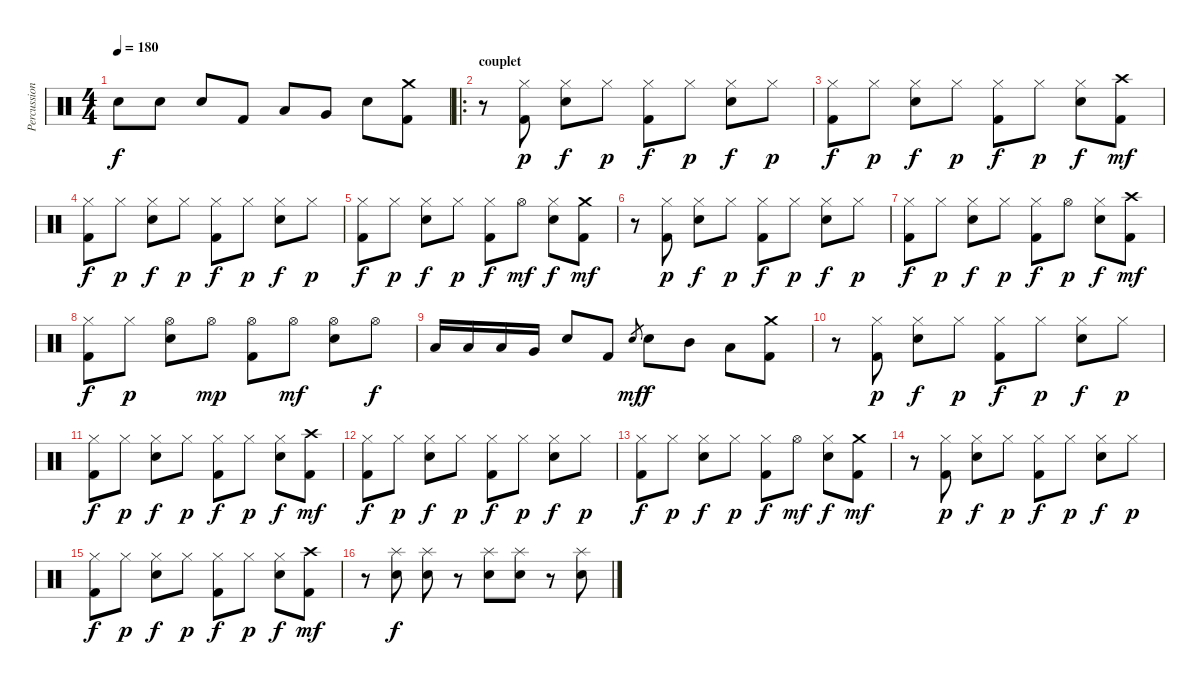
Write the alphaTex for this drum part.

\track ("Percussions" "Percussion") {instrument percussion}
\staff {score}
\articulation defaults
\ts (4 4)
\tempo 180
\clef neutral
\ks c "Electric Snare (hit)".8{dy f} "Electric Snare (hit)".8 "Electric Snare (hit)".8 "Kick (hit) 2".8 "Low Tom (hit)".8 "Very Low Tom (hit)".8 "Electric Snare (hit)".8
("Crash medium (hit)" "Kick (hit) 2").8 |
\ro
\section ("" "couplet")
r.8 ("Hi-Hat (closed)" "Kick (hit) 2").8{dy p} ("Hi-Hat (closed)" "Electric Snare (hit)").8{dy f} "Hi-Hat (closed)".8{dy p} ("Hi-Hat (closed)" "Kick (hit) 2").8{dy f} "Hi-Hat (closed)".8{dy p} ("Hi-Hat (closed)" "Electric Snare (hit)").8{dy f} "Hi-Hat (closed)".8{dy p} |
("Hi-Hat (closed)" "Kick (hit) 2").8{dy f} "Hi-Hat (closed)".8{dy p} ("Hi-Hat (closed)" "Electric Snare (hit)").8{dy f} "Hi-Hat (closed)".8{dy p} ("Hi-Hat (closed)" "Kick (hit) 2").8{dy f} "Hi-Hat (closed)".8{dy p} ("Hi-Hat (closed)" "Electric Snare (hit)").8{dy f} ("Crash high (hit)" "Kick (hit) 2").8{dy mf} |
("Hi-Hat (closed)" "Kick (hit) 2").8{dy f} "Hi-Hat (closed)".8{dy p} ("Hi-Hat (closed)" "Electric Snare (hit)").8{dy f} "Hi-Hat (closed)".8{dy p} ("Hi-Hat (closed)" "Kick (hit) 2").8{dy f} "Hi-Hat (closed)".8{dy p} ("Hi-Hat (closed)" "Electric Snare (hit)").8{dy f} "Hi-Hat (closed)".8{dy p} |
("Hi-Hat (closed)" "Kick (hit) 2").8{dy f} "Hi-Hat (closed)".8{dy p} ("Hi-Hat (closed)" "Electric Snare (hit)").8{dy f} "Hi-Hat (closed)".8{dy p} ("Hi-Hat (closed)" "Kick (hit) 2").8{dy f} "Hi-Hat (open)".8{dy mf} ("Hi-Hat (closed)" "Electric Snare (hit)").8{dy f} ("Crash medium (hit)" "Kick (hit) 2").8{dy mf} |
r.8 ("Hi-Hat (closed)" "Kick (hit) 2").8{dy p} ("Hi-Hat (closed)" "Electric Snare (hit)").8{dy f} "Hi-Hat (closed)".8{dy p} ("Hi-Hat (closed)" "Kick (hit) 2").8{dy f} "Hi-Hat (closed)".8{dy p} ("Hi-Hat (closed)" "Electric Snare (hit)").8{dy f} "Hi-Hat (closed)".8{dy p} |
("Hi-Hat (closed)" "Kick (hit) 2").8{dy f} "Hi-Hat (closed)".8{dy p} ("Hi-Hat (closed)" "Electric Snare (hit)").8{dy f} "Hi-Hat (closed)".8{dy p} ("Hi-Hat (closed)" "Kick (hit) 2").8{dy f} "Hi-Hat (open)".8{dy p} ("Hi-Hat (closed)" "Electric Snare (hit)").8{dy f} ("Crash high (hit)" "Kick (hit) 2").8{dy mf} |
("Hi-Hat (closed)" "Kick (hit) 2").8{dy f} "Hi-Hat (closed)".8{dy p} ("Hi-Hat (open)" "Electric Snare (hit)").8 "Hi-Hat (open)".8{dy mp} ("Hi-Hat (open)" "Kick (hit) 2").8 "Hi-Hat (open)".8{dy mf} ("Hi-Hat (open)" "Electric Snare (hit)").8 "Hi-Hat (open)".8{dy f} |
"Low Tom (hit)".16 "Low Tom (hit)".16 "Low Tom (hit)".16 "Very Low Tom (hit)".16 "Electric Snare (hit)".8 "Kick (hit) 2".8 "Electric Snare (hit)".8{gr dy mf} "Electric Snare (hit)".8{dy f} "Mid Tom (hit)".8 "Low Tom (hit)".8 ("Crash medium (hit)" "Kick (hit) 2").8 |
r.8 ("Hi-Hat (closed)" "Kick (hit) 2").8{dy p} ("Hi-Hat (closed)" "Electric Snare (hit)").8{dy f} "Hi-Hat (closed)".8{dy p} ("Hi-Hat (closed)" "Kick (hit) 2").8{dy f} "Hi-Hat (closed)".8{dy p} ("Hi-Hat (closed)" "Electric Snare (hit)").8{dy f} "Hi-Hat (closed)".8{dy p} |
("Hi-Hat (closed)" "Kick (hit) 2").8{dy f} "Hi-Hat (closed)".8{dy p} ("Hi-Hat (closed)" "Electric Snare (hit)").8{dy f} "Hi-Hat (closed)".8{dy p} ("Hi-Hat (closed)" "Kick (hit) 2").8{dy f} "Hi-Hat (closed)".8{dy p} ("Hi-Hat (closed)" "Electric Snare (hit)").8{dy f} ("Crash high (hit)" "Kick (hit) 2").8{dy mf} |
("Hi-Hat (closed)" "Kick (hit) 2").8{dy f} "Hi-Hat (closed)".8{dy p} ("Hi-Hat (closed)" "Electric Snare (hit)").8{dy f} "Hi-Hat (closed)".8{dy p} ("Hi-Hat (closed)" "Kick (hit) 2").8{dy f} "Hi-Hat (closed)".8{dy p} ("Hi-Hat (closed)" "Electric Snare (hit)").8{dy f} "Hi-Hat (closed)".8{dy p} |
("Hi-Hat (closed)" "Kick (hit) 2").8{dy f} "Hi-Hat (closed)".8{dy p} ("Hi-Hat (closed)" "Electric Snare (hit)").8{dy f} "Hi-Hat (closed)".8{dy p} ("Hi-Hat (closed)" "Kick (hit) 2").8{dy f} "Hi-Hat (open)".8{dy mf} ("Hi-Hat (closed)" "Electric Snare (hit)").8{dy f} ("Crash medium (hit)" "Kick (hit) 2").8{dy mf} |
r.8 ("Hi-Hat (closed)" "Kick (hit) 2").8{dy p} ("Hi-Hat (closed)" "Electric Snare (hit)").8{dy f} "Hi-Hat (closed)".8{dy p} ("Hi-Hat (closed)" "Kick (hit) 2").8{dy f} "Hi-Hat (closed)".8{dy p} ("Hi-Hat (closed)" "Electric Snare (hit)").8{dy f} "Hi-Hat (closed)".8{dy p} |
("Hi-Hat (closed)" "Kick (hit) 2").8{dy f} "Hi-Hat (closed)".8{dy p} ("Hi-Hat (closed)" "Electric Snare (hit)").8{dy f} "Hi-Hat (closed)".8{dy p} ("Hi-Hat (closed)" "Kick (hit) 2").8{dy f} "Hi-Hat (closed)".8{dy p} ("Hi-Hat (closed)" "Electric Snare (hit)").8{dy f} ("Crash high (hit)" "Kick (hit) 2").8{dy mf} |
r.8 ("Splash (hit)" "Electric Snare (hit)").8{dy f} ("Splash (hit)" "Electric Snare (hit)").8 r.8 ("Splash (hit)" "Electric Snare (hit)").8 ("Splash (hit)" "Electric Snare (hit)").8 r.8 ("Splash (hit)" "Electric Snare (hit)").8
